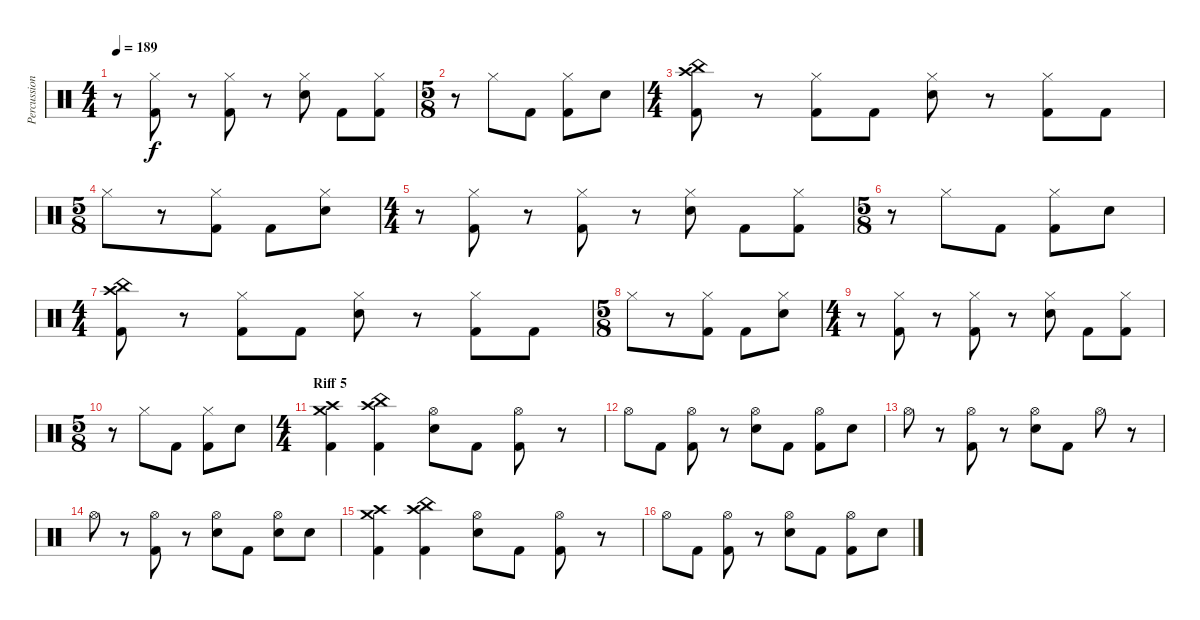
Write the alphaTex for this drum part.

\track ("Percussion" "Percussion") {instrument percussion}
\staff {score}
\articulation defaults
\ts (4 4)
\tempo 189
\clef neutral
\ks c
r.8{dy f} ("Hi-Hat (closed)" "Kick (hit) 2").8 r.8 ("Hi-Hat (closed)" "Kick (hit) 2").8 r.8 ("Hi-Hat (closed)" "Electric Snare (hit)").8 "Kick (hit) 2".8 ("Hi-Hat (closed)" "Kick (hit) 2").8 |
\ts (5 8)
r.8 "Hi-Hat (closed)".8 "Kick (hit) 2".8 ("Hi-Hat (closed)" "Kick (hit) 2").8 "Electric Snare (hit)".8 |
\ts (4 4)
("China (hit)" "Crash high (hit)" "Kick (hit) 2").8 r.8 ("Hi-Hat (closed)" "Kick (hit) 2").8 "Kick (hit) 2".8 ("Hi-Hat (closed)" "Electric Snare (hit)").8 r.8 ("Hi-Hat (closed)" "Kick (hit) 2").8 "Kick (hit) 2".8 |
\ts (5 8)
"Hi-Hat (closed)".8 r.8 ("Hi-Hat (closed)" "Kick (hit) 2").8 "Kick (hit) 2".8 ("Hi-Hat (closed)" "Electric Snare (hit)").8 |
\ts (4 4)
r.8 ("Hi-Hat (closed)" "Kick (hit) 2").8 r.8 ("Hi-Hat (closed)" "Kick (hit) 2").8 r.8 ("Hi-Hat (closed)" "Electric Snare (hit)").8 "Kick (hit) 2".8 ("Hi-Hat (closed)" "Kick (hit) 2").8 |
\ts (5 8)
r.8 "Hi-Hat (closed)".8 "Kick (hit) 2".8 ("Hi-Hat (closed)" "Kick (hit) 2").8 "Electric Snare (hit)".8 |
\ts (4 4)
("China (hit)" "Crash high (hit)" "Kick (hit) 2").8 r.8 ("Hi-Hat (closed)" "Kick (hit) 2").8 "Kick (hit) 2".8 ("Hi-Hat (closed)" "Electric Snare (hit)").8 r.8 ("Hi-Hat (closed)" "Kick (hit) 2").8 "Kick (hit) 2".8 |
\ts (5 8)
"Hi-Hat (closed)".8 r.8 ("Hi-Hat (closed)" "Kick (hit) 2").8 "Kick (hit) 2".8 ("Hi-Hat (closed)" "Electric Snare (hit)").8 |
\ts (4 4)
r.8 ("Hi-Hat (closed)" "Kick (hit) 2").8 r.8 ("Hi-Hat (closed)" "Kick (hit) 2").8 r.8 ("Hi-Hat (closed)" "Electric Snare (hit)").8 "Kick (hit) 2".8 ("Hi-Hat (closed)" "Kick (hit) 2").8 |
\ts (5 8)
r.8 "Hi-Hat (closed)".8 "Kick (hit) 2".8 ("Hi-Hat (closed)" "Kick (hit) 2").8 "Electric Snare (hit)".8 |
\ts (4 4)
\section ("" "Riff 5")
("Crash medium (hit)" "Crash high (hit)" "Kick (hit) 2").4 ("China (hit)" "Crash high (hit)" "Kick (hit) 2").4 ("Hi-Hat (open)" "Electric Snare (hit)").8 "Kick (hit) 2".8 ("Hi-Hat (open)" "Kick (hit) 2").8 r.8 |
"Hi-Hat (open)".8 "Kick (hit) 2".8 ("Hi-Hat (open)" "Kick (hit) 2").8 r.8 ("Hi-Hat (open)" "Electric Snare (hit)").8 "Kick (hit) 2".8 ("Hi-Hat (open)" "Kick (hit) 2").8 "Electric Snare (hit)".8 |
"Hi-Hat (open)".8 r.8 ("Hi-Hat (open)" "Kick (hit) 2").8 r.8 ("Hi-Hat (open)" "Electric Snare (hit)").8 "Kick (hit) 2".8 "Hi-Hat (open)".8 r.8 |
"Hi-Hat (open)".8 r.8 ("Hi-Hat (open)" "Kick (hit) 2").8 r.8 ("Hi-Hat (open)" "Electric Snare (hit)").8 "Kick (hit) 2".8 ("Hi-Hat (open)" "Electric Snare (hit)").8 "Electric Snare (hit)".8 |
("Crash medium (hit)" "Crash high (hit)" "Kick (hit) 2").4 ("China (hit)" "Crash high (hit)" "Kick (hit) 2").4 ("Hi-Hat (open)" "Electric Snare (hit)").8 "Kick (hit) 2".8 ("Hi-Hat (open)" "Kick (hit) 2").8 r.8 |
"Hi-Hat (open)".8 "Kick (hit) 2".8 ("Hi-Hat (open)" "Kick (hit) 2").8 r.8 ("Hi-Hat (open)" "Electric Snare (hit)").8 "Kick (hit) 2".8 ("Hi-Hat (open)" "Kick (hit) 2").8 "Electric Snare (hit)".8
